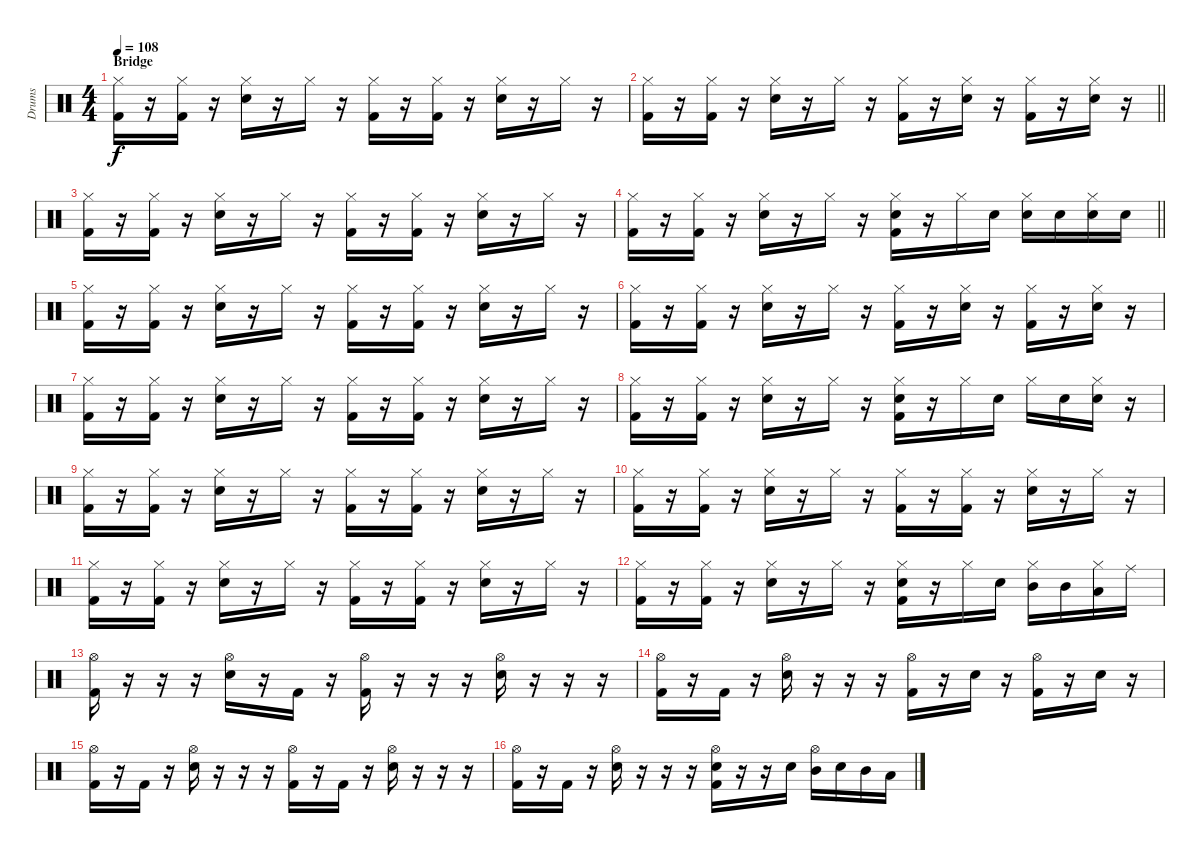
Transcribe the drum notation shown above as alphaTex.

\track ("Drums" "Drums") {instrument percussion}
\staff {score}
\articulation defaults
\ts (4 4)
\section ("" "Bridge")
\tempo 108
\clef neutral
\ks c
("Hi-Hat (closed)" "Kick (hit) 2").16{dy f} r.16 ("Hi-Hat (closed)" "Kick (hit) 2").16 r.16 ("Snare (hit) 2" "Hi-Hat (closed)").16 r.16 "Hi-Hat (closed)".16 r.16 ("Hi-Hat (closed)" "Kick (hit) 2").16 r.16 ("Hi-Hat (closed)" "Kick (hit) 2").16 r.16 ("Snare (hit) 2" "Hi-Hat (closed)").16 r.16 "Hi-Hat (closed)".16 r.16 |
\barLineRight lightlight
("Hi-Hat (closed)" "Kick (hit) 2").16 r.16 ("Hi-Hat (closed)" "Kick (hit) 2").16 r.16 ("Snare (hit) 2" "Hi-Hat (closed)").16 r.16 "Hi-Hat (closed)".16 r.16 ("Hi-Hat (closed)" "Kick (hit) 2").16 r.16 ("Snare (hit) 2" "Hi-Hat (closed)").16 r.16 ("Hi-Hat (closed)" "Kick (hit) 2").16 r.16 ("Snare (hit) 2" "Hi-Hat (closed)").16 r.16 |
("Hi-Hat (closed)" "Kick (hit) 2").16 r.16 ("Hi-Hat (closed)" "Kick (hit) 2").16 r.16 ("Snare (hit) 2" "Hi-Hat (closed)").16 r.16 "Hi-Hat (closed)".16 r.16 ("Hi-Hat (closed)" "Kick (hit) 2").16 r.16 ("Hi-Hat (closed)" "Kick (hit) 2").16 r.16 ("Snare (hit) 2" "Hi-Hat (closed)").16 r.16 "Hi-Hat (closed)".16 r.16 |
\barLineRight lightlight
("Hi-Hat (closed)" "Kick (hit) 2").16 r.16 ("Hi-Hat (closed)" "Kick (hit) 2").16 r.16 ("Snare (hit) 2" "Hi-Hat (closed)").16 r.16 "Hi-Hat (closed)".16 r.16 ("Snare (hit) 2" "Hi-Hat (closed)" "Kick (hit) 2").16 r.16 "Hi-Hat (closed)".16 "Snare (hit) 2".16 ("Snare (hit) 2" "Hi-Hat (closed)").16 "Snare (hit) 2".16 ("Snare (hit) 2" "Hi-Hat (closed)").16 "Snare (hit) 2".16 |
("Hi-Hat (closed)" "Kick (hit) 2").16 r.16 ("Hi-Hat (closed)" "Kick (hit) 2").16 r.16 ("Snare (hit) 2" "Hi-Hat (closed)").16 r.16 "Hi-Hat (closed)".16 r.16 ("Hi-Hat (closed)" "Kick (hit) 2").16 r.16 ("Hi-Hat (closed)" "Kick (hit) 2").16 r.16 ("Snare (hit) 2" "Hi-Hat (closed)").16 r.16 "Hi-Hat (closed)".16 r.16 |
("Hi-Hat (closed)" "Kick (hit) 2").16 r.16 ("Hi-Hat (closed)" "Kick (hit) 2").16 r.16 ("Snare (hit) 2" "Hi-Hat (closed)").16 r.16 "Hi-Hat (closed)".16 r.16 ("Hi-Hat (closed)" "Kick (hit) 2").16 r.16 ("Snare (hit) 2" "Hi-Hat (closed)").16 r.16 ("Hi-Hat (closed)" "Kick (hit) 2").16 r.16 ("Snare (hit) 2" "Hi-Hat (closed)").16 r.16 |
("Hi-Hat (closed)" "Kick (hit) 2").16 r.16 ("Hi-Hat (closed)" "Kick (hit) 2").16 r.16 ("Snare (hit) 2" "Hi-Hat (closed)").16 r.16 "Hi-Hat (closed)".16 r.16 ("Hi-Hat (closed)" "Kick (hit) 2").16 r.16 ("Hi-Hat (closed)" "Kick (hit) 2").16 r.16 ("Snare (hit) 2" "Hi-Hat (closed)").16 r.16 "Hi-Hat (closed)".16 r.16 |
("Hi-Hat (closed)" "Kick (hit) 2").16 r.16 ("Hi-Hat (closed)" "Kick (hit) 2").16 r.16 ("Snare (hit) 2" "Hi-Hat (closed)").16 r.16 "Hi-Hat (closed)".16 r.16 ("Snare (hit) 2" "Hi-Hat (closed)" "Kick (hit) 2").16 r.16 "Hi-Hat (closed)".16 "Snare (hit) 2".16 "Hi-Hat (closed)".16 "Snare (hit) 2".16 ("Snare (hit) 2" "Hi-Hat (closed)").16 r.16 |
("Hi-Hat (closed)" "Kick (hit) 2").16 r.16 ("Hi-Hat (closed)" "Kick (hit) 2").16 r.16 ("Snare (hit) 2" "Hi-Hat (closed)").16 r.16 "Hi-Hat (closed)".16 r.16 ("Hi-Hat (closed)" "Kick (hit) 2").16 r.16 ("Hi-Hat (closed)" "Kick (hit) 2").16 r.16 ("Snare (hit) 2" "Hi-Hat (closed)").16 r.16 "Hi-Hat (closed)".16 r.16 |
("Hi-Hat (closed)" "Kick (hit) 2").16 r.16 ("Hi-Hat (closed)" "Kick (hit) 2").16 r.16 ("Snare (hit) 2" "Hi-Hat (closed)").16 r.16 "Hi-Hat (closed)".16 r.16 ("Hi-Hat (closed)" "Kick (hit) 2").16 r.16 ("Hi-Hat (closed)" "Kick (hit) 2").16 r.16 ("Snare (hit) 2" "Hi-Hat (closed)").16 r.16 "Hi-Hat (closed)".16 r.16 |
("Hi-Hat (closed)" "Kick (hit) 2").16 r.16 ("Hi-Hat (closed)" "Kick (hit) 2").16 r.16 ("Snare (hit) 2" "Hi-Hat (closed)").16 r.16 "Hi-Hat (closed)".16 r.16 ("Hi-Hat (closed)" "Kick (hit) 2").16 r.16 ("Hi-Hat (closed)" "Kick (hit) 2").16 r.16 ("Snare (hit) 2" "Hi-Hat (closed)").16 r.16 "Hi-Hat (closed)".16 r.16 |
("Hi-Hat (closed)" "Kick (hit) 2").16 r.16 ("Hi-Hat (closed)" "Kick (hit) 2").16 r.16 ("Snare (hit) 2" "Hi-Hat (closed)").16 r.16 "Hi-Hat (closed)".16 r.16 ("Snare (hit) 2" "Hi-Hat (closed)" "Kick (hit) 2").16 r.16 "Hi-Hat (closed)".16 "Snare (hit) 2".16 ("Mid Tom (hit)" "Hi-Hat (closed)").16 "Mid Tom (hit)".16 ("Low Tom (hit)" "Hi-Hat (closed)").16 "Ride (middle)".16 |
("Hi-Hat (open)" "Kick (hit) 2").16 r.16 r.16 r.16 ("Snare (hit) 2" "Hi-Hat (open)").16 r.16 "Kick (hit) 2".16 r.16 ("Hi-Hat (open)" "Kick (hit) 2").16 r.16 r.16 r.16 ("Snare (hit) 2" "Hi-Hat (open)").16 r.16 r.16 r.16 |
("Hi-Hat (open)" "Kick (hit) 2").16 r.16 "Kick (hit) 2".16 r.16 ("Snare (hit) 2" "Hi-Hat (open)").16 r.16 r.16 r.16 ("Hi-Hat (open)" "Kick (hit) 2").16 r.16 "Snare (hit) 2".16 r.16 ("Hi-Hat (open)" "Kick (hit) 2").16 r.16 "Snare (hit) 2".16 r.16 |
("Hi-Hat (open)" "Kick (hit) 2").16 r.16 "Kick (hit) 2".16 r.16 ("Snare (hit) 2" "Hi-Hat (open)").16 r.16 r.16 r.16 ("Hi-Hat (open)" "Kick (hit) 2").16 r.16 "Kick (hit) 2".16 r.16 ("Snare (hit) 2" "Hi-Hat (open)").16 r.16 r.16 r.16 |
("Hi-Hat (open)" "Kick (hit) 2").16 r.16 "Kick (hit) 2".16 r.16 ("Snare (hit) 2" "Hi-Hat (open)").16 r.16 r.16 r.16 ("Snare (hit) 2" "Hi-Hat (open)" "Kick (hit) 2").16 r.16 r.16 "Snare (hit) 2".16 ("Mid Tom (hit)" "Hi-Hat (open)").16 "Snare (hit) 2".16 "Mid Tom (hit)".16 "Low Tom (hit)".16
